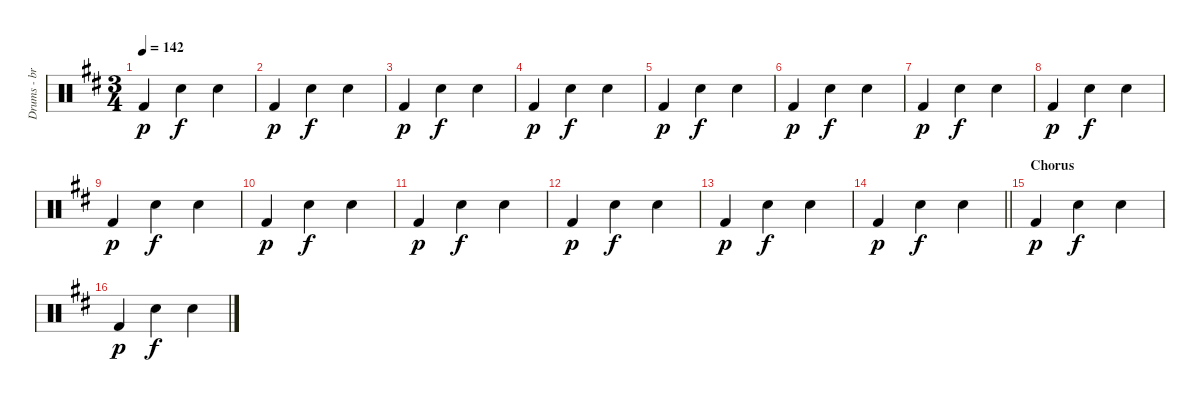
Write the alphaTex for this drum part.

\track ("Drums - brush set" "Drums - br") {instrument percussion}
\staff {score}
\articulation defaults
\ts (3 4)
\tempo 142
\clef neutral
\ks d "Kick (hit) 2".4{dy p} "Snare (hit) 2".4{dy f} "Snare (hit) 2".4
|
"Kick (hit) 2".4{dy p} "Snare (hit) 2".4{dy f} "Snare (hit) 2".4 |
"Kick (hit) 2".4{dy p} "Snare (hit) 2".4{dy f} "Snare (hit) 2".4 |
"Kick (hit) 2".4{dy p} "Snare (hit) 2".4{dy f} "Snare (hit) 2".4 |
"Kick (hit) 2".4{dy p} "Snare (hit) 2".4{dy f} "Snare (hit) 2".4 |
"Kick (hit) 2".4{dy p} "Snare (hit) 2".4{dy f} "Snare (hit) 2".4 |
"Kick (hit) 2".4{dy p} "Snare (hit) 2".4{dy f} "Snare (hit) 2".4 |
"Kick (hit) 2".4{dy p} "Snare (hit) 2".4{dy f} "Snare (hit) 2".4 |
"Kick (hit) 2".4{dy p} "Snare (hit) 2".4{dy f} "Snare (hit) 2".4 |
"Kick (hit) 2".4{dy p} "Snare (hit) 2".4{dy f} "Snare (hit) 2".4 |
"Kick (hit) 2".4{dy p} "Snare (hit) 2".4{dy f} "Snare (hit) 2".4 |
"Kick (hit) 2".4{dy p} "Snare (hit) 2".4{dy f} "Snare (hit) 2".4 |
"Kick (hit) 2".4{dy p} "Snare (hit) 2".4{dy f} "Snare (hit) 2".4 |
\barLineRight lightlight "Kick (hit) 2".4{dy p} "Snare (hit) 2".4{dy f} "Snare (hit) 2".4
|
\section ("" "Chorus")
"Kick (hit) 2".4{dy p} "Snare (hit) 2".4{dy f} "Snare (hit) 2".4 |
"Kick (hit) 2".4{dy p} "Snare (hit) 2".4{dy f} "Snare (hit) 2".4
